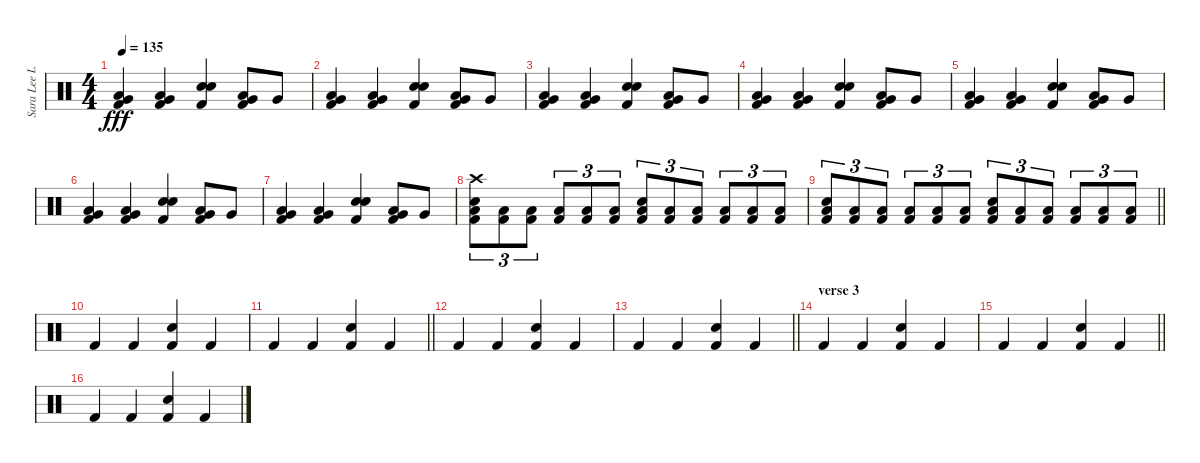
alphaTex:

\track ("Sara Lee Lucas" "Sara Lee L") {instrument percussion}
\staff {score}
\articulation defaults
\ts (4 4)
\tempo 135
\clef neutral
\ks c
("Very Low Tom (hit)" "Low Tom (hit)" "Kick (hit) 2").4{dy fff} ("Very Low Tom (hit)" "Low Tom (hit)" "Kick (hit) 2").4 ("Snare (hit) 2" "Electric Snare (hit)" "Kick (hit) 2").4 ("Very Low Tom (hit)" "Low Tom (hit)" "Kick (hit) 2").8 "Very Low Tom (hit)".8 |
("Very Low Tom (hit)" "Low Tom (hit)" "Kick (hit) 2").4 ("Very Low Tom (hit)" "Low Tom (hit)" "Kick (hit) 2").4 ("Snare (hit) 2" "Electric Snare (hit)" "Kick (hit) 2").4 ("Very Low Tom (hit)" "Low Tom (hit)" "Kick (hit) 2").8 "Very Low Tom (hit)".8 |
("Very Low Tom (hit)" "Low Tom (hit)" "Kick (hit) 2").4 ("Very Low Tom (hit)" "Low Tom (hit)" "Kick (hit) 2").4 ("Snare (hit) 2" "Electric Snare (hit)" "Kick (hit) 2").4 ("Very Low Tom (hit)" "Low Tom (hit)" "Kick (hit) 2").8 "Very Low Tom (hit)".8 |
("Very Low Tom (hit)" "Low Tom (hit)" "Kick (hit) 2").4 ("Very Low Tom (hit)" "Low Tom (hit)" "Kick (hit) 2").4 ("Snare (hit) 2" "Electric Snare (hit)" "Kick (hit) 2").4 ("Very Low Tom (hit)" "Low Tom (hit)" "Kick (hit) 2").8 "Very Low Tom (hit)".8 |
("Very Low Tom (hit)" "Low Tom (hit)" "Kick (hit) 2").4 ("Very Low Tom (hit)" "Low Tom (hit)" "Kick (hit) 2").4 ("Snare (hit) 2" "Electric Snare (hit)" "Kick (hit) 2").4 ("Very Low Tom (hit)" "Low Tom (hit)" "Kick (hit) 2").8 "Very Low Tom (hit)".8 |
("Very Low Tom (hit)" "Low Tom (hit)" "Kick (hit) 2").4 ("Very Low Tom (hit)" "Low Tom (hit)" "Kick (hit) 2").4 ("Snare (hit) 2" "Electric Snare (hit)" "Kick (hit) 2").4 ("Very Low Tom (hit)" "Low Tom (hit)" "Kick (hit) 2").8 "Very Low Tom (hit)".8 |
("Very Low Tom (hit)" "Low Tom (hit)" "Kick (hit) 2").4 ("Very Low Tom (hit)" "Low Tom (hit)" "Kick (hit) 2").4 ("Snare (hit) 2" "Electric Snare (hit)" "Kick (hit) 2").4 ("Very Low Tom (hit)" "Low Tom (hit)" "Kick (hit) 2").8 "Very Low Tom (hit)".8 |
("Crash high (hit)" "Snare (hit) 2" "Low Tom (hit)" "Kick (hit) 2").8{tu (3 2)} ("Low Tom (hit)" "Kick (hit) 2").8{tu (3 2)} ("Low Tom (hit)" "Kick (hit) 2").8{tu (3 2)} ("Low Tom (hit)" "Kick (hit) 2").8{tu (3 2)} ("Low Tom (hit)" "Kick (hit) 2").8{tu (3 2)} ("Low Tom (hit)" "Kick (hit) 2").8{tu (3 2)} ("Snare (hit) 2" "Low Tom (hit)" "Kick (hit) 2").8{tu (3 2)} ("Low Tom (hit)" "Kick (hit) 2").8{tu (3 2)} ("Low Tom (hit)" "Kick (hit) 2").8{tu (3 2)} ("Low Tom (hit)" "Kick (hit) 2").8{tu (3 2)} ("Low Tom (hit)" "Kick (hit) 2").8{tu (3 2)} ("Low Tom (hit)" "Kick (hit) 2").8{tu (3 2)} |
\barLineRight lightlight
("Snare (hit) 2" "Low Tom (hit)" "Kick (hit) 2").8{tu (3 2)} ("Low Tom (hit)" "Kick (hit) 2").8{tu (3 2)} ("Low Tom (hit)" "Kick (hit) 2").8{tu (3 2)} ("Low Tom (hit)" "Kick (hit) 2").8{tu (3 2)} ("Low Tom (hit)" "Kick (hit) 2").8{tu (3 2)} ("Low Tom (hit)" "Kick (hit) 2").8{tu (3 2)} ("Snare (hit) 2" "Low Tom (hit)" "Kick (hit) 2").8{tu (3 2)} ("Low Tom (hit)" "Kick (hit) 2").8{tu (3 2)} ("Low Tom (hit)" "Kick (hit) 2").8{tu (3 2)} ("Low Tom (hit)" "Kick (hit) 2").8{tu (3 2)} ("Low Tom (hit)" "Kick (hit) 2").8{tu (3 2)} ("Low Tom (hit)" "Kick (hit) 2").8{tu (3 2)} |
"Kick (hit) 2".4 "Kick (hit) 2".4 ("Snare (hit) 2" "Kick (hit) 2").4 "Kick (hit) 2".4 |
\barLineRight lightlight "Kick (hit) 2".4 "Kick (hit) 2".4
("Snare (hit) 2" "Kick (hit) 2").4 "Kick (hit) 2".4 |
"Kick (hit) 2".4 "Kick (hit) 2".4 ("Snare (hit) 2" "Kick (hit) 2").4 "Kick (hit) 2".4 |
\barLineRight lightlight "Kick (hit) 2".4 "Kick (hit) 2".4
("Snare (hit) 2" "Kick (hit) 2").4 "Kick (hit) 2".4 |
\section ("" "verse 3")
"Kick (hit) 2".4 "Kick (hit) 2".4 ("Snare (hit) 2" "Kick (hit) 2").4 "Kick (hit) 2".4 |
\barLineRight lightlight "Kick (hit) 2".4 "Kick (hit) 2".4
("Snare (hit) 2" "Kick (hit) 2").4 "Kick (hit) 2".4 |
"Kick (hit) 2".4 "Kick (hit) 2".4 ("Snare (hit) 2" "Kick (hit) 2").4 "Kick (hit) 2".4
